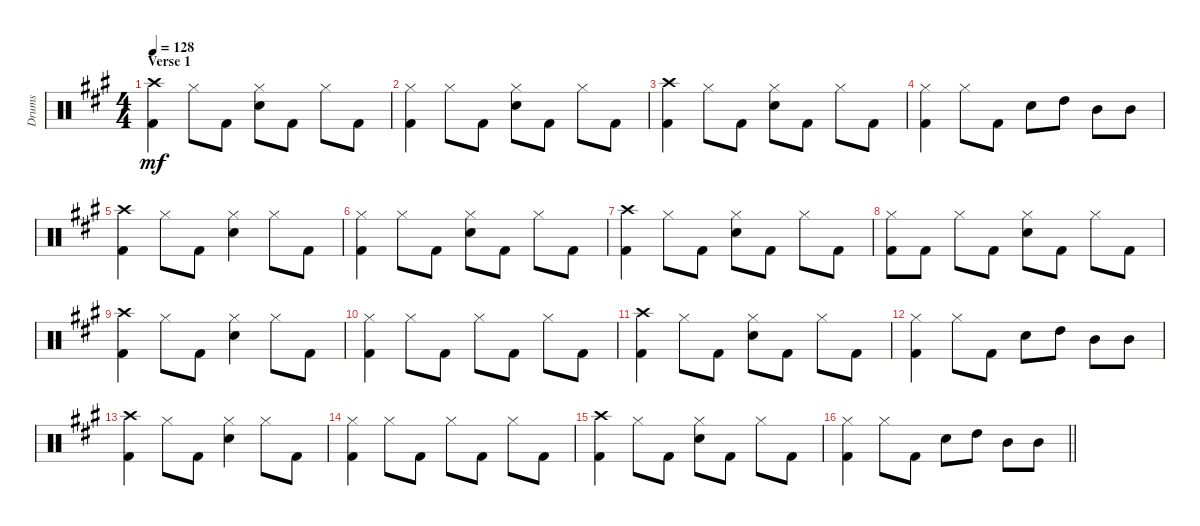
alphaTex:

\track ("Drums" "Drums") {instrument percussion}
\staff {score}
\articulation defaults
\ts (4 4)
\section ("" "Verse 1")
\tempo 128
\clef neutral
\ks f#minor
("Crash high (hit)" "Kick (hit) 2").4{dy mf} "Hi-Hat (closed)".8 "Kick (hit) 2".8 ("Hi-Hat (closed)" "Electric Snare (hit)").8 "Kick (hit) 2".8 "Hi-Hat (closed)".8 "Kick (hit) 2".8 |
("Hi-Hat (closed)" "Kick (hit) 2").4 "Hi-Hat (closed)".8 "Kick (hit) 2".8 ("Hi-Hat (closed)" "Electric Snare (hit)").8 "Kick (hit) 2".8 "Hi-Hat (closed)".8 "Kick (hit) 2".8 |
("Crash high (hit)" "Kick (hit) 2").4 "Hi-Hat (closed)".8 "Kick (hit) 2".8 ("Hi-Hat (closed)" "Electric Snare (hit)").8 "Kick (hit) 2".8 "Hi-Hat (closed)".8 "Kick (hit) 2".8 |
("Hi-Hat (closed)" "Kick (hit) 2").4 "Hi-Hat (closed)".8 "Kick (hit) 2".8 "Electric Snare (hit)".8 "High Tom (hit)".8 "Mid Tom (hit)".8 "Mid Tom (hit)".8 |
("Crash high (hit)" "Kick (hit) 2").4 "Hi-Hat (closed)".8 "Kick (hit) 2".8 ("Hi-Hat (closed)" "Electric Snare (hit)").4 "Hi-Hat (closed)".8 "Kick (hit) 2".8 |
("Hi-Hat (closed)" "Kick (hit) 2").4 "Hi-Hat (closed)".8 "Kick (hit) 2".8 ("Hi-Hat (closed)" "Electric Snare (hit)").8 "Kick (hit) 2".8 "Hi-Hat (closed)".8 "Kick (hit) 2".8 |
("Crash high (hit)" "Kick (hit) 2").4 "Hi-Hat (closed)".8 "Kick (hit) 2".8 ("Hi-Hat (closed)" "Electric Snare (hit)").8 "Kick (hit) 2".8 "Hi-Hat (closed)".8 "Kick (hit) 2".8 |
("Hi-Hat (closed)" "Kick (hit) 2").8 "Kick (hit) 2".8 "Hi-Hat (closed)".8 "Kick (hit) 2".8 ("Hi-Hat (closed)" "Electric Snare (hit)").8 "Kick (hit) 2".8 "Hi-Hat (closed)".8 "Kick (hit) 2".8 |
("Crash high (hit)" "Kick (hit) 2").4 "Hi-Hat (closed)".8 "Kick (hit) 2".8 ("Hi-Hat (closed)" "Electric Snare (hit)").4 "Hi-Hat (closed)".8 "Kick (hit) 2".8 |
("Hi-Hat (closed)" "Kick (hit) 2").4 "Hi-Hat (closed)".8 "Kick (hit) 2".8 "Hi-Hat (closed)".8 "Kick (hit) 2".8 "Hi-Hat (closed)".8 "Kick (hit) 2".8 |
("Crash high (hit)" "Kick (hit) 2").4 "Hi-Hat (closed)".8 "Kick (hit) 2".8 ("Hi-Hat (closed)" "Electric Snare (hit)").8 "Kick (hit) 2".8 "Hi-Hat (closed)".8 "Kick (hit) 2".8 |
("Hi-Hat (closed)" "Kick (hit) 2").4 "Hi-Hat (closed)".8 "Kick (hit) 2".8 "Electric Snare (hit)".8 "High Tom (hit)".8 "Mid Tom (hit)".8 "Mid Tom (hit)".8 |
("Crash high (hit)" "Kick (hit) 2").4 "Hi-Hat (closed)".8 "Kick (hit) 2".8 ("Hi-Hat (closed)" "Electric Snare (hit)").4 "Hi-Hat (closed)".8 "Kick (hit) 2".8 |
("Hi-Hat (closed)" "Kick (hit) 2").4 "Hi-Hat (closed)".8 "Kick (hit) 2".8 "Hi-Hat (closed)".8 "Kick (hit) 2".8 "Hi-Hat (closed)".8 "Kick (hit) 2".8 |
("Crash high (hit)" "Kick (hit) 2").4 "Hi-Hat (closed)".8 "Kick (hit) 2".8 ("Hi-Hat (closed)" "Electric Snare (hit)").8 "Kick (hit) 2".8 "Hi-Hat (closed)".8 "Kick (hit) 2".8 |
\barLineRight lightlight
("Hi-Hat (closed)" "Kick (hit) 2").4 "Hi-Hat (closed)".8 "Kick (hit) 2".8 "Electric Snare (hit)".8 "High Tom (hit)".8 "Mid Tom (hit)".8 "Mid Tom (hit)".8
